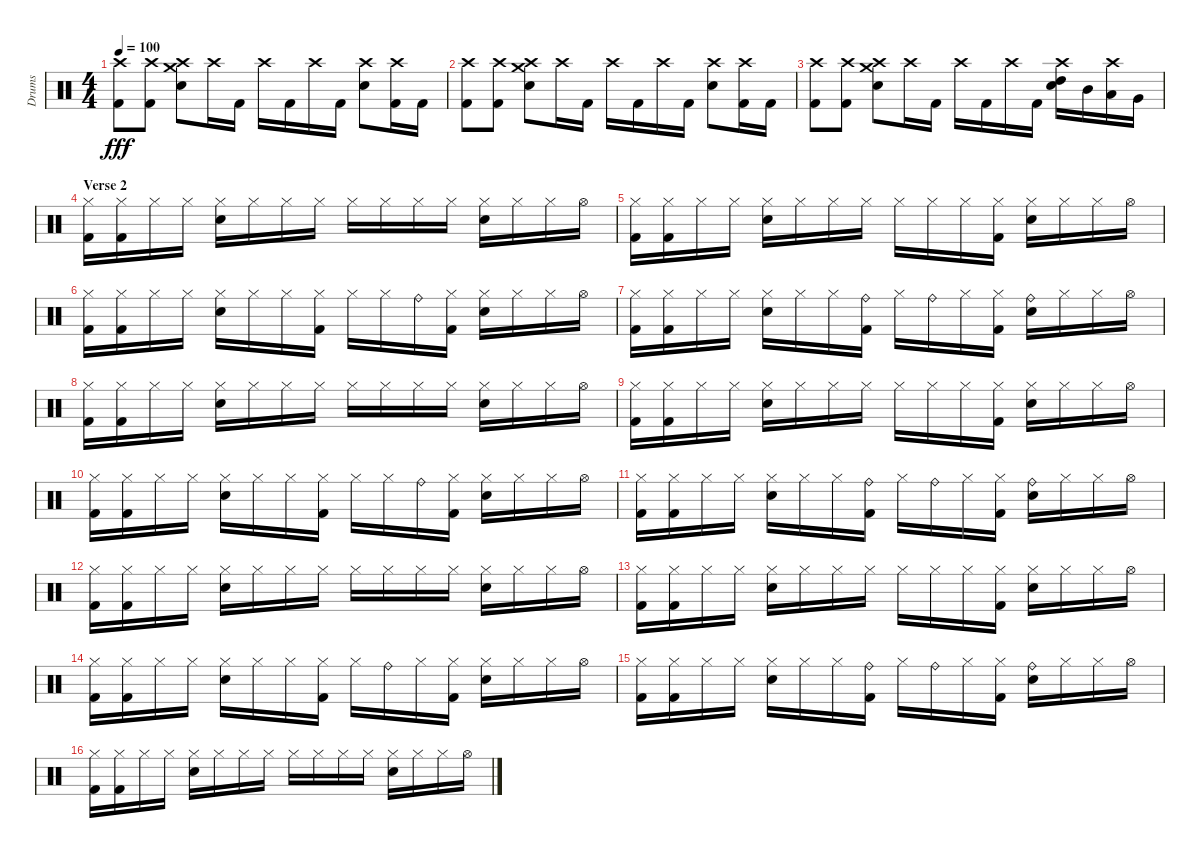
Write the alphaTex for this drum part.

\track ("Drums" "Drums") {instrument percussion}
\staff {score}
\articulation defaults
\ts (4 4)
\tempo 100
\clef neutral
\ks c
("Crash high (hit)" "Kick (hit) 2").8{dy fff} ("Crash high (hit)" "Kick (hit) 2").8 ("Crash high (hit)" "Crash medium (hit)" "Electric Snare (hit)").8 "Crash high (hit)".16 "Kick (hit) 2".16 "Crash high (hit)".16 "Kick (hit) 2".16 "Crash high (hit)".16 "Kick (hit) 2".16 ("Crash high (hit)" "Electric Snare (hit)").8 ("Crash high (hit)" "Kick (hit) 2").16 "Kick (hit) 2".16 |
("Crash high (hit)" "Kick (hit) 2").8 ("Crash high (hit)" "Kick (hit) 2").8 ("Crash high (hit)" "Crash medium (hit)" "Electric Snare (hit)").8 "Crash high (hit)".16 "Kick (hit) 2".16 "Crash high (hit)".16 "Kick (hit) 2".16 "Crash high (hit)".16 "Kick (hit) 2".16 ("Crash high (hit)" "Electric Snare (hit)").8 ("Crash high (hit)" "Kick (hit) 2").16 "Kick (hit) 2".16 |
("Crash high (hit)" "Kick (hit) 2").8 ("Crash high (hit)" "Kick (hit) 2").8 ("Crash high (hit)" "Crash medium (hit)" "Electric Snare (hit)").8 "Crash high (hit)".16 "Kick (hit) 2".16 "Crash high (hit)".16 "Kick (hit) 2".16 "Crash high (hit)".16 "Kick (hit) 2".16 ("Crash high (hit)" "High Tom (hit)" "Electric Snare (hit)").16 "Mid Tom (hit)".16 ("Crash high (hit)" "Low Tom (hit)").16 "Very Low Tom (hit)".16 |
\section ("" "Verse 2")
("Hi-Hat (closed)" "Kick (hit) 2").16 ("Hi-Hat (closed)" "Kick (hit) 2").16 "Hi-Hat (closed)".16 "Hi-Hat (closed)".16 ("Hi-Hat (closed)" "Electric Snare (hit)").16 "Hi-Hat (closed)".16 "Hi-Hat (closed)".16 "Hi-Hat (closed)".16 "Hi-Hat (closed)".16 "Hi-Hat (closed)".16 "Hi-Hat (closed)".16 "Hi-Hat (closed)".16 ("Hi-Hat (closed)" "Electric Snare (hit)").16 "Hi-Hat (closed)".16 "Hi-Hat (closed)".16 "Hi-Hat (open)".16 |
("Hi-Hat (closed)" "Kick (hit) 2").16 ("Hi-Hat (closed)" "Kick (hit) 2").16 "Hi-Hat (closed)".16 "Hi-Hat (closed)".16 ("Hi-Hat (closed)" "Electric Snare (hit)").16 "Hi-Hat (closed)".16 "Hi-Hat (closed)".16 "Hi-Hat (closed)".16 "Hi-Hat (closed)".16 "Hi-Hat (closed)".16 "Hi-Hat (closed)".16 ("Hi-Hat (closed)" "Kick (hit) 2").16 ("Hi-Hat (closed)" "Electric Snare (hit)").16 "Hi-Hat (closed)".16 "Hi-Hat (closed)".16 "Hi-Hat (open)".16 |
("Hi-Hat (closed)" "Kick (hit) 2").16 ("Hi-Hat (closed)" "Kick (hit) 2").16 "Hi-Hat (closed)".16 "Hi-Hat (closed)".16 ("Hi-Hat (closed)" "Electric Snare (hit)").16 "Hi-Hat (closed)".16 "Hi-Hat (closed)".16 ("Hi-Hat (closed)" "Kick (hit) 2").16 "Hi-Hat (closed)".16 "Hi-Hat (closed)".16 "Ride (bell)".16 ("Hi-Hat (closed)" "Kick (hit) 2").16 ("Hi-Hat (closed)" "Electric Snare (hit)").16 "Hi-Hat (closed)".16 "Hi-Hat (closed)".16 "Hi-Hat (open)".16 |
("Hi-Hat (closed)" "Kick (hit) 2").16 ("Hi-Hat (closed)" "Kick (hit) 2").16 "Hi-Hat (closed)".16 "Hi-Hat (closed)".16 ("Hi-Hat (closed)" "Electric Snare (hit)").16 "Hi-Hat (closed)".16 "Hi-Hat (closed)".16 ("Ride (bell)" "Kick (hit) 2").16 "Hi-Hat (closed)".16 "Ride (bell)".16 "Hi-Hat (closed)".16 ("Hi-Hat (closed)" "Kick (hit) 2").16 ("Ride (bell)" "Electric Snare (hit)").16 "Hi-Hat (closed)".16 "Hi-Hat (closed)".16 "Hi-Hat (open)".16 |
("Hi-Hat (closed)" "Kick (hit) 2").16 ("Hi-Hat (closed)" "Kick (hit) 2").16 "Hi-Hat (closed)".16 "Hi-Hat (closed)".16 ("Hi-Hat (closed)" "Electric Snare (hit)").16 "Hi-Hat (closed)".16 "Hi-Hat (closed)".16 "Hi-Hat (closed)".16 "Hi-Hat (closed)".16 "Hi-Hat (closed)".16 "Hi-Hat (closed)".16 "Hi-Hat (closed)".16 ("Hi-Hat (closed)" "Electric Snare (hit)").16 "Hi-Hat (closed)".16 "Hi-Hat (closed)".16 "Hi-Hat (open)".16 |
("Hi-Hat (closed)" "Kick (hit) 2").16 ("Hi-Hat (closed)" "Kick (hit) 2").16 "Hi-Hat (closed)".16 "Hi-Hat (closed)".16 ("Hi-Hat (closed)" "Electric Snare (hit)").16 "Hi-Hat (closed)".16 "Hi-Hat (closed)".16 "Hi-Hat (closed)".16 "Hi-Hat (closed)".16 "Hi-Hat (closed)".16 "Hi-Hat (closed)".16 ("Hi-Hat (closed)" "Kick (hit) 2").16 ("Hi-Hat (closed)" "Electric Snare (hit)").16 "Hi-Hat (closed)".16 "Hi-Hat (closed)".16 "Hi-Hat (open)".16 |
("Hi-Hat (closed)" "Kick (hit) 2").16 ("Hi-Hat (closed)" "Kick (hit) 2").16 "Hi-Hat (closed)".16 "Hi-Hat (closed)".16 ("Hi-Hat (closed)" "Electric Snare (hit)").16 "Hi-Hat (closed)".16 "Hi-Hat (closed)".16 ("Hi-Hat (closed)" "Kick (hit) 2").16 "Hi-Hat (closed)".16 "Hi-Hat (closed)".16 "Ride (bell)".16 ("Hi-Hat (closed)" "Kick (hit) 2").16 ("Hi-Hat (closed)" "Electric Snare (hit)").16 "Hi-Hat (closed)".16 "Hi-Hat (closed)".16 "Hi-Hat (open)".16 |
("Hi-Hat (closed)" "Kick (hit) 2").16 ("Hi-Hat (closed)" "Kick (hit) 2").16 "Hi-Hat (closed)".16 "Hi-Hat (closed)".16 ("Hi-Hat (closed)" "Electric Snare (hit)").16 "Hi-Hat (closed)".16 "Hi-Hat (closed)".16 ("Ride (bell)" "Kick (hit) 2").16 "Hi-Hat (closed)".16 "Ride (bell)".16 "Hi-Hat (closed)".16 ("Hi-Hat (closed)" "Kick (hit) 2").16 ("Ride (bell)" "Electric Snare (hit)").16 "Hi-Hat (closed)".16 "Hi-Hat (closed)".16 "Hi-Hat (open)".16 |
("Hi-Hat (closed)" "Kick (hit) 2").16 ("Hi-Hat (closed)" "Kick (hit) 2").16 "Hi-Hat (closed)".16 "Hi-Hat (closed)".16 ("Hi-Hat (closed)" "Electric Snare (hit)").16 "Hi-Hat (closed)".16 "Hi-Hat (closed)".16 "Hi-Hat (closed)".16 "Hi-Hat (closed)".16 "Hi-Hat (closed)".16 "Hi-Hat (closed)".16 "Hi-Hat (closed)".16 ("Hi-Hat (closed)" "Electric Snare (hit)").16 "Hi-Hat (closed)".16 "Hi-Hat (closed)".16 "Hi-Hat (open)".16 |
("Hi-Hat (closed)" "Kick (hit) 2").16 ("Hi-Hat (closed)" "Kick (hit) 2").16 "Hi-Hat (closed)".16 "Hi-Hat (closed)".16 ("Hi-Hat (closed)" "Electric Snare (hit)").16 "Hi-Hat (closed)".16 "Hi-Hat (closed)".16 "Hi-Hat (closed)".16 "Hi-Hat (closed)".16 "Hi-Hat (closed)".16 "Hi-Hat (closed)".16 ("Hi-Hat (closed)" "Kick (hit) 2").16 ("Hi-Hat (closed)" "Electric Snare (hit)").16 "Hi-Hat (closed)".16 "Hi-Hat (closed)".16 "Hi-Hat (open)".16 |
("Hi-Hat (closed)" "Kick (hit) 2").16 ("Hi-Hat (closed)" "Kick (hit) 2").16 "Hi-Hat (closed)".16 "Hi-Hat (closed)".16 ("Hi-Hat (closed)" "Electric Snare (hit)").16 "Hi-Hat (closed)".16 "Hi-Hat (closed)".16 ("Hi-Hat (closed)" "Kick (hit) 2").16 "Hi-Hat (closed)".16 "Ride (bell)".16 "Hi-Hat (closed)".16 ("Hi-Hat (closed)" "Kick (hit) 2").16 ("Hi-Hat (closed)" "Electric Snare (hit)").16 "Hi-Hat (closed)".16 "Hi-Hat (closed)".16 "Hi-Hat (open)".16 |
("Hi-Hat (closed)" "Kick (hit) 2").16 ("Hi-Hat (closed)" "Kick (hit) 2").16 "Hi-Hat (closed)".16 "Hi-Hat (closed)".16 ("Hi-Hat (closed)" "Electric Snare (hit)").16 "Hi-Hat (closed)".16 "Hi-Hat (closed)".16 ("Ride (bell)" "Kick (hit) 2").16 "Hi-Hat (closed)".16 "Ride (bell)".16 "Hi-Hat (closed)".16 ("Hi-Hat (closed)" "Kick (hit) 2").16 ("Ride (bell)" "Electric Snare (hit)").16 "Hi-Hat (closed)".16 "Hi-Hat (closed)".16 "Hi-Hat (open)".16 |
("Hi-Hat (closed)" "Kick (hit) 2").16 ("Hi-Hat (closed)" "Kick (hit) 2").16 "Hi-Hat (closed)".16 "Hi-Hat (closed)".16 ("Hi-Hat (closed)" "Electric Snare (hit)").16 "Hi-Hat (closed)".16 "Hi-Hat (closed)".16 "Hi-Hat (closed)".16 "Hi-Hat (closed)".16 "Hi-Hat (closed)".16 "Hi-Hat (closed)".16 "Hi-Hat (closed)".16 ("Hi-Hat (closed)" "Electric Snare (hit)").16 "Hi-Hat (closed)".16 "Hi-Hat (closed)".16 "Hi-Hat (open)".16
